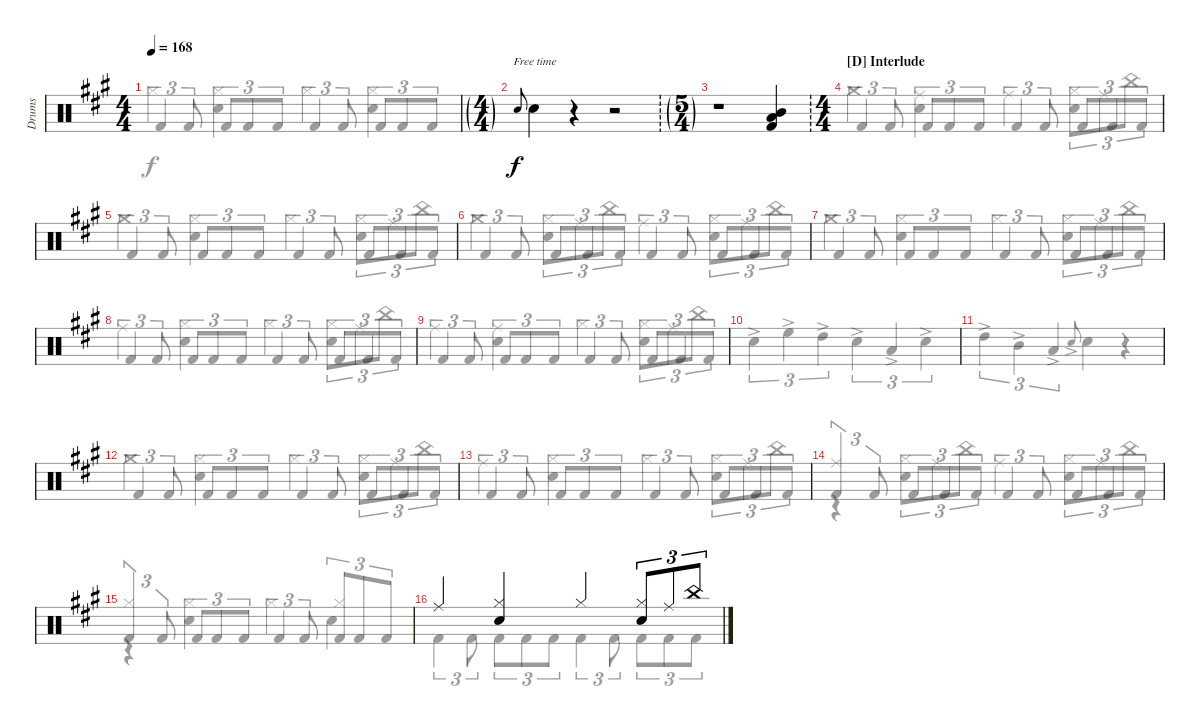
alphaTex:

\defaultSystemsLayout 4
\bracketExtendMode groupsimilarinstruments
\otherSystemsTrackNameOrientation horizontal
\track ("Drums" "Drums") {instrument percussion}
\staff {score}
\articulation defaults
\voice
\ts (4 4)
\tempo 168
\clef neutral
\ks a
|
\ft "Snare (hit) 2"{acc forcenatural}.8{gr onbeat beam Up} "Snare (hit) 2"{acc forcenatural}.4{beam Down}
r.4{beam Down} r.2{beam Down} |
\ts (5 4)
\ft
r.1{beam Down} ("Kick (hit) 2"{acc forcenatural} "Low Tom (hit)"{acc forcenatural} "Mid Tom (hit)"{acc forcenatural}).4{beam Up} |
\ts (4 4)
\section ("D" "Interlude")
|
|
|
|
|
|
|
|
|
|
|
|
"Ride (middle)"{acc forcenatural}.4{beam Up} ("Hi-Hat (closed)"{acc forcenatural} "Snare (hit) 2"{acc forcenatural}).4{beam Up} "Hi-Hat (closed)"{acc forcenatural}.4{beam Up} ("Hi-Hat (closed)"{acc forcenatural} "Snare (hit) 2"{acc forcenatural}).8{tu (3 2) beam Up} "Ride (middle)"{acc forcenatural}.8{tu (3 2) beam Up} "China (hit)"{acc forcenatural}.8{tu (3 2) beam Up}
\voice
\clef neutral
\ottava regular
\simile none
\ks a "Kick (hit) 2"{acc forcenatural}.4{tu (3 2) dy f beam Up} "Kick (hit) 2"{acc forcenatural}.8{tu (3 2) beam Up} "Kick (hit) 2"{acc forcenatural}.8{tu (3 2) beam Up} "Kick (hit) 2"{acc forcenatural}.8{tu (3 2) beam Up} "Kick (hit) 2"{acc forcenatural}.8{tu (3 2) beam Up} "Kick (hit) 2"{acc forcenatural}.4{tu (3 2) beam Up} "Kick (hit) 2"{acc forcenatural}.8{tu (3 2) beam Up} "Kick (hit) 2"{acc forcenatural}.8{tu (3 2) beam Up} "Kick (hit) 2"{acc forcenatural}.8{tu (3 2) beam Up} "Kick (hit) 2"{acc forcenatural}.8{tu (3 2) beam Up}
|
|
|
"Kick (hit) 2"{acc forcenatural}.4{tu (3 2) beam Up} "Kick (hit) 2"{acc forcenatural}.8{tu (3 2) beam Up} "Kick (hit) 2"{acc forcenatural}.8{tu (3 2) beam Up} "Kick (hit) 2"{acc forcenatural}.8{tu (3 2) beam Up} "Kick (hit) 2"{acc forcenatural}.8{tu (3 2) beam Up} "Kick (hit) 2"{acc forcenatural}.4{tu (3 2) beam Up} "Kick (hit) 2"{acc forcenatural}.8{tu (3 2) beam Up} "Kick (hit) 2"{acc forcenatural}.8{tu (3 2) beam Up} "Kick (hit) 2"{acc forcenatural}.8{tu (3 2) beam Up} "Kick (hit) 2"{acc forcenatural}.8{tu (3 2) beam Up} |
"Kick (hit) 2"{acc forcenatural}.4{tu (3 2) beam Up} "Kick (hit) 2"{acc forcenatural}.8{tu (3 2) beam Up} "Kick (hit) 2"{acc forcenatural}.8{tu (3 2) beam Up} "Kick (hit) 2"{acc forcenatural}.8{tu (3 2) beam Up} "Kick (hit) 2"{acc forcenatural}.8{tu (3 2) beam Up} "Kick (hit) 2"{acc forcenatural}.4{tu (3 2) beam Up} "Kick (hit) 2"{acc forcenatural}.8{tu (3 2) beam Up} "Kick (hit) 2"{acc forcenatural}.8{tu (3 2) beam Up} "Kick (hit) 2"{acc forcenatural}.8{tu (3 2) beam Up} "Kick (hit) 2"{acc forcenatural}.8{tu (3 2) beam Up} |
"Kick (hit) 2"{acc forcenatural}.4{tu (3 2) beam Up} "Kick (hit) 2"{acc forcenatural}.8{tu (3 2) beam Up} "Kick (hit) 2"{acc forcenatural}.8{tu (3 2) beam Up} "Kick (hit) 2"{acc forcenatural}.8{tu (3 2) beam Up} "Kick (hit) 2"{acc forcenatural}.8{tu (3 2) beam Up} "Kick (hit) 2"{acc forcenatural}.4{tu (3 2) beam Up} "Kick (hit) 2"{acc forcenatural}.8{tu (3 2) beam Up} "Kick (hit) 2"{acc forcenatural}.8{tu (3 2) beam Up} "Kick (hit) 2"{acc forcenatural}.8{tu (3 2) beam Up} "Kick (hit) 2"{acc forcenatural}.8{tu (3 2) beam Up} |
"Kick (hit) 2"{acc forcenatural}.4{tu (3 2) beam Up} "Kick (hit) 2"{acc forcenatural}.8{tu (3 2) beam Up} "Kick (hit) 2"{acc forcenatural}.8{tu (3 2) beam Up} "Kick (hit) 2"{acc forcenatural}.8{tu (3 2) beam Up} "Kick (hit) 2"{acc forcenatural}.8{tu (3 2) beam Up} "Kick (hit) 2"{acc forcenatural}.4{tu (3 2) beam Up} "Kick (hit) 2"{acc forcenatural}.8{tu (3 2) beam Up} "Kick (hit) 2"{acc forcenatural}.8{tu (3 2) beam Up} "Kick (hit) 2"{acc forcenatural}.8{tu (3 2) beam Up} "Kick (hit) 2"{acc forcenatural}.8{tu (3 2) beam Up} |
"Kick (hit) 2"{acc forcenatural}.4{tu (3 2) beam Up} "Kick (hit) 2"{acc forcenatural}.8{tu (3 2) beam Up} "Kick (hit) 2"{acc forcenatural}.8{tu (3 2) beam Up} "Kick (hit) 2"{acc forcenatural}.8{tu (3 2) beam Up} "Kick (hit) 2"{acc forcenatural}.8{tu (3 2) beam Up} "Kick (hit) 2"{acc forcenatural}.4{tu (3 2) beam Up} "Kick (hit) 2"{acc forcenatural}.8{tu (3 2) beam Up} "Kick (hit) 2"{acc forcenatural}.8{tu (3 2) beam Up} "Kick (hit) 2"{acc forcenatural}.8{tu (3 2) beam Up} "Kick (hit) 2"{acc forcenatural}.8{tu (3 2) beam Up} |
"Kick (hit) 2"{acc forcenatural}.4{tu (3 2) beam Up} "Kick (hit) 2"{acc forcenatural}.8{tu (3 2) beam Up} "Kick (hit) 2"{acc forcenatural}.8{tu (3 2) beam Up} "Kick (hit) 2"{acc forcenatural}.8{tu (3 2) beam Up} "Kick (hit) 2"{acc forcenatural}.8{tu (3 2) beam Up} "Kick (hit) 2"{acc forcenatural}.4{tu (3 2) beam Up} "Kick (hit) 2"{acc forcenatural}.8{tu (3 2) beam Up} "Kick (hit) 2"{acc forcenatural}.8{tu (3 2) beam Up} "Kick (hit) 2"{acc forcenatural}.8{tu (3 2) beam Up} "Kick (hit) 2"{acc forcenatural}.8{tu (3 2) beam Up} |
"Snare (hit) 2"{ac acc forcenatural}.4{tu (3 2) beam Down} "High Floor Tom (hit)"{ac acc forcenatural}.4{tu (3 2) beam Down} "High Tom (hit)"{ac acc forcenatural}.4{tu (3 2) beam Down} "Snare (hit) 2"{ac acc forcenatural}.4{tu (3 2) beam Down} "Low Tom (hit)"{ac acc forcenatural}.4{tu (3 2) beam Up} "Snare (hit) 2"{ac acc forcenatural}.4{tu (3 2) beam Down} |
"High Tom (hit)"{ac acc forcenatural}.4{tu (3 2) beam Down} "Mid Tom (hit)"{ac acc forcenatural}.4{tu (3 2) beam Down} "Low Tom (hit)"{ac acc forcenatural}.4{tu (3 2) beam Up} "Snare (hit) 2"{ac acc forcenatural}.8{gr onbeat beam Up} "Snare (hit) 2"{acc forcenatural}.4{beam Down} r.4{beam Down} |
"Kick (hit) 2"{acc forcenatural}.4{tu (3 2) beam Up} "Kick (hit) 2"{acc forcenatural}.8{tu (3 2) beam Up} "Kick (hit) 2"{acc forcenatural}.8{tu (3 2) beam Up} "Kick (hit) 2"{acc forcenatural}.8{tu (3 2) beam Up} "Kick (hit) 2"{acc forcenatural}.8{tu (3 2) beam Up} "Kick (hit) 2"{acc forcenatural}.4{tu (3 2) beam Up} "Kick (hit) 2"{acc forcenatural}.8{tu (3 2) beam Up} "Kick (hit) 2"{acc forcenatural}.8{tu (3 2) beam Up} "Kick (hit) 2"{acc forcenatural}.8{tu (3 2) beam Up} "Kick (hit) 2"{acc forcenatural}.8{tu (3 2) beam Up} |
"Kick (hit) 2"{acc forcenatural}.4{tu (3 2) beam Up} "Kick (hit) 2"{acc forcenatural}.8{tu (3 2) beam Up} "Kick (hit) 2"{acc forcenatural}.8{tu (3 2) beam Up} "Kick (hit) 2"{acc forcenatural}.8{tu (3 2) beam Up} "Kick (hit) 2"{acc forcenatural}.8{tu (3 2) beam Up} "Kick (hit) 2"{acc forcenatural}.4{tu (3 2) beam Up} "Kick (hit) 2"{acc forcenatural}.8{tu (3 2) beam Up} "Kick (hit) 2"{acc forcenatural}.8{tu (3 2) beam Up} "Kick (hit) 2"{acc forcenatural}.8{tu (3 2) beam Up} "Kick (hit) 2"{acc forcenatural}.8{tu (3 2) beam Up} |
("Kick (hit) 2"{acc forcenatural} "Ride (middle)"{acc forcenatural}).4{tu (3 2) beam Up} "Kick (hit) 2"{acc forcenatural}.8{tu (3 2) beam Up} "Kick (hit) 2"{acc forcenatural}.8{tu (3 2) beam Up} "Kick (hit) 2"{acc forcenatural}.8{tu (3 2) beam Up} "Kick (hit) 2"{acc forcenatural}.8{tu (3 2) beam Up} "Kick (hit) 2"{acc forcenatural}.4{tu (3 2) beam Up} "Kick (hit) 2"{acc forcenatural}.8{tu (3 2) beam Up} "Kick (hit) 2"{acc forcenatural}.8{tu (3 2) beam Up} "Kick (hit) 2"{acc forcenatural}.8{tu (3 2) beam Up} "Kick (hit) 2"{acc forcenatural}.8{tu (3 2) beam Up} |
("Kick (hit) 2"{acc forcenatural} "Hi-Hat (closed)"{acc forcenatural}).4{tu (3 2) beam Up} "Kick (hit) 2"{acc forcenatural}.8{tu (3 2) beam Up} "Kick (hit) 2"{acc forcenatural}.8{tu (3 2) beam Up} "Kick (hit) 2"{acc forcenatural}.8{tu (3 2) beam Up} "Kick (hit) 2"{acc forcenatural}.8{tu (3 2) beam Up} "Kick (hit) 2"{acc forcenatural}.4{tu (3 2) beam Up} "Kick (hit) 2"{acc forcenatural}.8{tu (3 2) beam Up} ("Kick (hit) 2"{acc forcenatural} "Hi-Hat (closed)"{acc forcenatural}).8{tu (3 2) beam Up} "Kick (hit) 2"{acc forcenatural}.8{tu (3 2) beam Up} "Kick (hit) 2"{acc forcenatural}.8{tu (3 2) beam Up} |
"Kick (hit) 2"{acc forcenatural}.4{tu (3 2) beam Down} "Kick (hit) 2"{acc forcenatural}.8{tu (3 2) beam Down} "Kick (hit) 2"{acc forcenatural}.8{tu (3 2) beam Down} "Kick (hit) 2"{acc forcenatural}.8{tu (3 2) beam Down} "Kick (hit) 2"{acc forcenatural}.8{tu (3 2) beam Down} "Kick (hit) 2"{acc forcenatural}.4{tu (3 2) beam Down} "Kick (hit) 2"{acc forcenatural}.8{tu (3 2) beam Down} "Kick (hit) 2"{acc forcenatural}.8{tu (3 2) beam Down} "Kick (hit) 2"{acc forcenatural}.8{tu (3 2) beam Down} "Kick (hit) 2"{acc forcenatural}.8{tu (3 2) beam Down}
\voice
\clef neutral
\ottava regular
\simile none
\ks a
|
|
|
|
|
|
|
|
|
|
|
|
|
|
|
\voice
\clef neutral
\ottava regular
\simile none
\ks a "Hi-Hat (closed)"{acc forcenatural}.4{dy f beam Down}
("Hi-Hat (closed)"{acc forcenatural} "Snare (hit) 2"{acc forcenatural}).4{beam Down} "Hi-Hat (closed)"{acc forcenatural}.4{beam Down} ("Hi-Hat (closed)"{acc forcenatural} "Snare (hit) 2"{acc forcenatural}).4{beam Down} |
|
|
"Crash medium (hit)"{acc forcenatural}.4{beam Down} ("Snare (hit) 2"{acc forcenatural} "Ride (middle)"{acc forcenatural}).4{beam Down} "Ride (middle)"{acc forcenatural}.4{beam Down} ("Snare (hit) 2"{acc forcenatural} "Hi-Hat (closed)"{acc forcenatural}).8{tu (3 2) beam Down} "Ride (middle)"{acc forcenatural}.8{tu (3 2) beam Down} "China (hit)"{acc forcenatural}.8{tu (3 2) beam Down} |
"Crash medium (hit)"{acc forcenatural}.4{beam Down} ("Snare (hit) 2"{acc forcenatural} "Hi-Hat (closed)"{acc forcenatural}).4{beam Down} "Hi-Hat (closed)"{acc forcenatural}.4{beam Down} ("Snare (hit) 2"{acc forcenatural} "Hi-Hat (closed)"{acc forcenatural}).8{tu (3 2) beam Down} "Ride (middle)"{acc forcenatural}.8{tu (3 2) beam Down} "China (hit)"{acc forcenatural}.8{tu (3 2) beam Down} |
"Crash medium (hit)"{acc forcenatural}.4{beam Down} ("Snare (hit) 2"{acc forcenatural} "Hi-Hat (closed)"{acc forcenatural}).8{tu (3 2) beam Down} "Ride (middle)"{acc forcenatural}.8{tu (3 2) beam Down} "China (hit)"{acc forcenatural}.8{tu (3 2) beam Down} "Ride (middle)"{acc forcenatural}.4{beam Down} ("Snare (hit) 2"{acc forcenatural} "Hi-Hat (closed)"{acc forcenatural}).8{tu (3 2) beam Down} "Ride (middle)"{acc forcenatural}.8{tu (3 2) beam Down} "China (hit)"{acc forcenatural}.8{tu (3 2) beam Down} |
"Crash medium (hit)"{acc forcenatural}.4{beam Down} ("Snare (hit) 2"{acc forcenatural} "Hi-Hat (closed)"{acc forcenatural}).4{beam Down} "Hi-Hat (closed)"{acc forcenatural}.4{beam Down} ("Snare (hit) 2"{acc forcenatural} "Hi-Hat (closed)"{acc forcenatural}).8{tu (3 2) beam Down} "Ride (middle)"{acc forcenatural}.8{tu (3 2) beam Down} "China (hit)"{acc forcenatural}.8{tu (3 2) beam Down} |
"Ride (middle)"{acc forcenatural}.4{beam Down} ("Snare (hit) 2"{acc forcenatural} "Hi-Hat (closed)"{acc forcenatural}).4{beam Down} "Hi-Hat (closed)"{acc forcenatural}.4{beam Down} ("Snare (hit) 2"{acc forcenatural} "Hi-Hat (closed)"{acc forcenatural}).8{tu (3 2) beam Down} "Ride (middle)"{acc forcenatural}.8{tu (3 2) beam Down} "China (hit)"{acc forcenatural}.8{tu (3 2) beam Down} |
"Ride (middle)"{acc forcenatural}.4{beam Down} ("Snare (hit) 2"{acc forcenatural} "Ride (middle)"{acc forcenatural}).4{beam Down} "Hi-Hat (closed)"{acc forcenatural}.4{beam Down} ("Snare (hit) 2"{acc forcenatural} "Hi-Hat (closed)"{acc forcenatural}).8{tu (3 2) beam Down} "Ride (middle)"{acc forcenatural}.8{tu (3 2) beam Down} "China (hit)"{acc forcenatural}.8{tu (3 2) beam Down} |
|
|
"Crash medium (hit)"{acc forcenatural}.4{beam Down} ("Snare (hit) 2"{acc forcenatural} "Hi-Hat (closed)"{acc forcenatural}).4{beam Down} "Hi-Hat (closed)"{acc forcenatural}.4{beam Down} ("Snare (hit) 2"{acc forcenatural} "Hi-Hat (closed)"{acc forcenatural}).8{tu (3 2) beam Down} "Ride (middle)"{acc forcenatural}.8{tu (3 2) beam Down} "China (hit)"{acc forcenatural}.8{tu (3 2) beam Down} |
"Ride (middle)"{acc forcenatural}.4{beam Down} ("Snare (hit) 2"{acc forcenatural} "Hi-Hat (closed)"{acc forcenatural}).4{beam Down} "Hi-Hat (closed)"{acc forcenatural}.4{beam Down} ("Snare (hit) 2"{acc forcenatural} "Hi-Hat (closed)"{acc forcenatural}).8{tu (3 2) beam Down} "Ride (middle)"{acc forcenatural}.8{tu (3 2) beam Down} "China (hit)"{acc forcenatural}.8{tu (3 2) beam Down} |
r.4{beam Down} ("Snare (hit) 2"{acc forcenatural} "Hi-Hat (closed)"{acc forcenatural}).8{tu (3 2) beam Down} "Ride (middle)"{acc forcenatural}.8{tu (3 2) beam Down} "China (hit)"{acc forcenatural}.8{tu (3 2) beam Down} "Ride (middle)"{acc forcenatural}.4{beam Down} ("Snare (hit) 2"{acc forcenatural} "Hi-Hat (closed)"{acc forcenatural}).8{tu (3 2) beam Down} "Ride (middle)"{acc forcenatural}.8{tu (3 2) beam Down} "China (hit)"{acc forcenatural}.8{tu (3 2) beam Down} |
r.4{beam Down} ("Snare (hit) 2"{acc forcenatural} "Hi-Hat (closed)"{acc forcenatural}).4{beam Down} "Hi-Hat (closed)"{acc forcenatural}.4{beam Down} "Snare (hit) 2"{acc forcenatural}.4{beam Down} |
